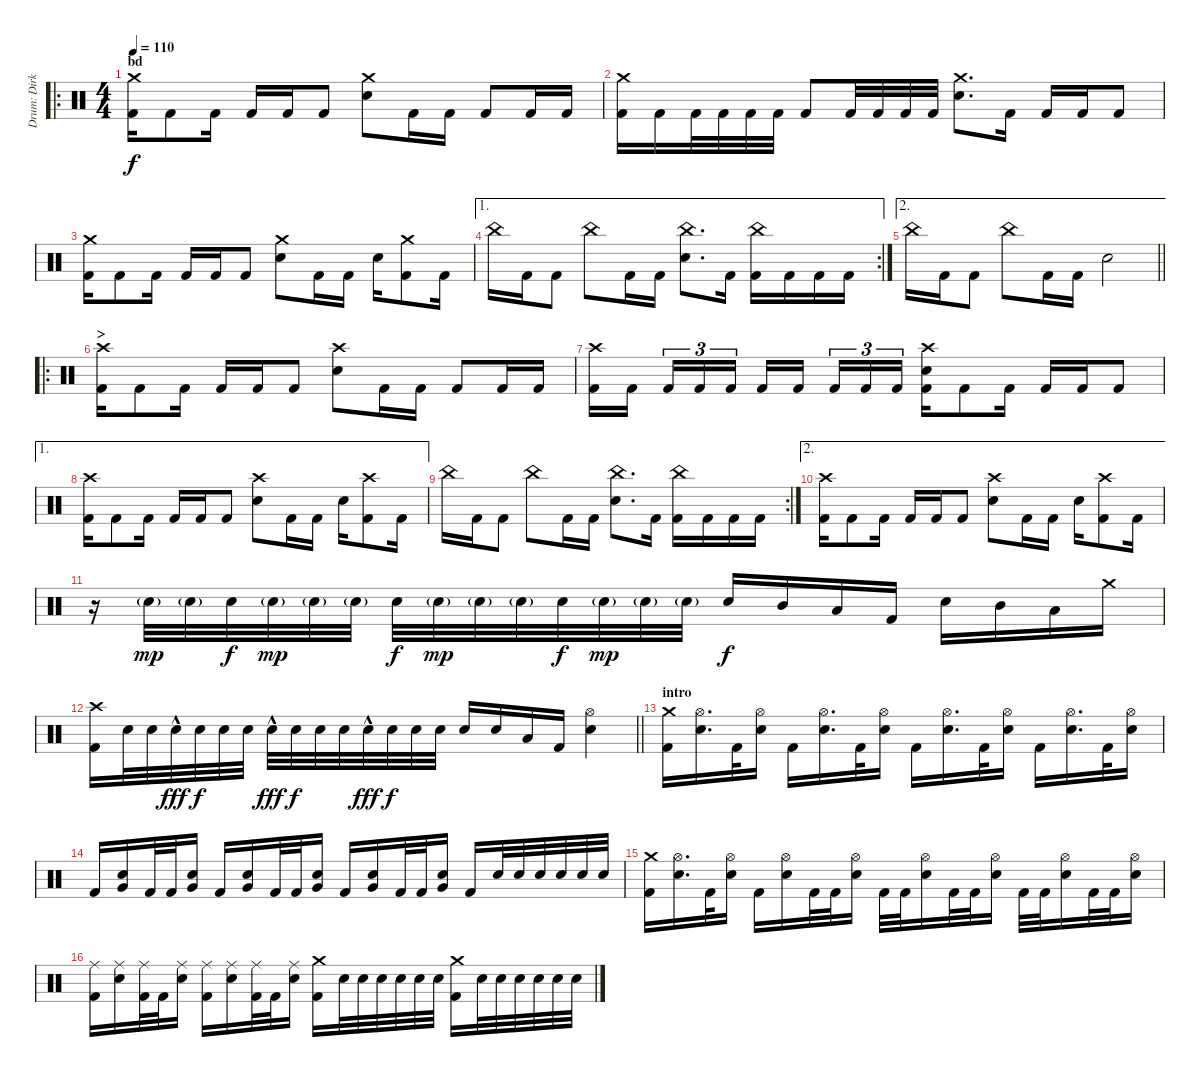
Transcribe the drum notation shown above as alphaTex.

\track ("Drum: Dirk" "Drum: Dirk") {instrument percussion}
\staff {score}
\articulation defaults
\ro
\ts (4 4)
\section ("" "bd")
\tempo 110
\clef neutral
\ks c
("Crash medium (hit)" "Kick (hit) 2").16{dy f} "Kick (hit) 2".8 "Kick (hit) 2".16 "Kick (hit) 2".16 "Kick (hit) 2".16 "Kick (hit) 2".8 ("Crash medium (hit)" "Electric Snare (hit)").8 "Kick (hit) 2".16 "Kick (hit) 2".16 "Kick (hit) 2".8 "Kick (hit) 2".16 "Kick (hit) 2".16 |
("Crash medium (hit)" "Kick (hit) 2").16 "Kick (hit) 2".16 "Kick (hit) 2".32 "Kick (hit) 2".32 "Kick (hit) 2".32 "Kick (hit) 2".32 "Kick (hit) 2".8 "Kick (hit) 2".32 "Kick (hit) 2".32 "Kick (hit) 2".32 "Kick (hit) 2".32 ("Crash medium (hit)" "Electric Snare (hit)").8{d} "Kick (hit) 2".16 "Kick (hit) 2".16 "Kick (hit) 2".16 "Kick (hit) 2".8 |
("Crash medium (hit)" "Kick (hit) 2").16 "Kick (hit) 2".8 "Kick (hit) 2".16 "Kick (hit) 2".16 "Kick (hit) 2".16 "Kick (hit) 2".8 ("Crash medium (hit)" "Electric Snare (hit)").8 "Kick (hit) 2".16 "Kick (hit) 2".16 "Electric Snare (hit)".16 ("Crash medium (hit)" "Kick (hit) 2").8 "Kick (hit) 2".16 |
\ae 1
\rc 2 "China (hit)".16 "Kick (hit) 2".16 "Kick (hit) 2".8 "China (hit)".8 "Kick (hit) 2".16 "Kick (hit) 2".16
("China (hit)" "Electric Snare (hit)").8{d} "Kick (hit) 2".16 ("China (hit)" "Kick (hit) 2").16 "Kick (hit) 2".16 "Kick (hit) 2".16 "Kick (hit) 2".16 |
\ae 2
\barLineRight lightlight "China (hit)".16 "Kick (hit) 2".16 "Kick (hit) 2".8 "China (hit)".8 "Kick (hit) 2".16 "Kick (hit) 2".16 "Electric Snare (hit)".2
|
\ro
\section ("" ">")
("Crash high (hit)" "Kick (hit) 2").16 "Kick (hit) 2".8 "Kick (hit) 2".16 "Kick (hit) 2".16 "Kick (hit) 2".16 "Kick (hit) 2".8 ("Crash high (hit)" "Electric Snare (hit)").8 "Kick (hit) 2".16 "Kick (hit) 2".16 "Kick (hit) 2".8 "Kick (hit) 2".16 "Kick (hit) 2".16 |
("Crash high (hit)" "Kick (hit) 2").16 "Kick (hit) 2".16{beam splitsecondary} "Kick (hit) 2".16{tu (3 2)} "Kick (hit) 2".16{tu (3 2)} "Kick (hit) 2".16{tu (3 2)} "Kick (hit) 2".16 "Kick (hit) 2".16{beam splitsecondary} "Kick (hit) 2".16{tu (3 2)} "Kick (hit) 2".16{tu (3 2)} "Kick (hit) 2".16{tu (3 2)} ("Crash high (hit)" "Electric Snare (hit)" "Kick (hit) 2").16 "Kick (hit) 2".8 "Kick (hit) 2".16 "Kick (hit) 2".16 "Kick (hit) 2".16 "Kick (hit) 2".8 |
\ae 1
("Crash high (hit)" "Kick (hit) 2").16 "Kick (hit) 2".8 "Kick (hit) 2".16 "Kick (hit) 2".16 "Kick (hit) 2".16 "Kick (hit) 2".8 ("Crash high (hit)" "Electric Snare (hit)").8 "Kick (hit) 2".16 "Kick (hit) 2".16 "Electric Snare (hit)".16 ("Crash high (hit)" "Kick (hit) 2").8 "Kick (hit) 2".16 |
\rc 2 "China (hit)".16 "Kick (hit) 2".16 "Kick (hit) 2".8 "China (hit)".8 "Kick (hit) 2".16 "Kick (hit) 2".16
("China (hit)" "Electric Snare (hit)").8{d} "Kick (hit) 2".16 ("China (hit)" "Kick (hit) 2").16 "Kick (hit) 2".16 "Kick (hit) 2".16 "Kick (hit) 2".16 |
\ae 2
("Crash high (hit)" "Kick (hit) 2").16 "Kick (hit) 2".8 "Kick (hit) 2".16 "Kick (hit) 2".16 "Kick (hit) 2".16 "Kick (hit) 2".8 ("Crash high (hit)" "Electric Snare (hit)").8 "Kick (hit) 2".16 "Kick (hit) 2".16 "Electric Snare (hit)".16 ("Crash high (hit)" "Kick (hit) 2").8 "Kick (hit) 2".16 |
r.16 "Electric Snare (hit)"{g}.32{dy mp} "Electric Snare (hit)"{g}.32 "Electric Snare (hit)".32{dy f} "Electric Snare (hit)"{g}.32{dy mp} "Electric Snare (hit)"{g}.32 "Electric Snare (hit)"{g}.32 "Electric Snare (hit)".32{dy f} "Electric Snare (hit)"{g}.32{dy mp} "Electric Snare (hit)"{g}.32 "Electric Snare (hit)"{g}.32 "Electric Snare (hit)".32{dy f} "Electric Snare (hit)"{g}.32{dy mp} "Electric Snare (hit)"{g}.32 "Electric Snare (hit)"{g}.32 "Electric Snare (hit)".16{dy f} "Mid Tom (hit)".16 "Low Tom (hit)".16 "Kick (hit) 2".16 "Electric Snare (hit)".16 "Mid Tom (hit)".16 "Low Tom (hit)".16 "Crash medium (hit)".16 |
\barLineRight lightlight
("Crash high (hit)" "Kick (hit) 2").16 "Electric Snare (hit)".32 "Electric Snare (hit)".32 "Electric Snare (hit)"{hac}.32{dy fff} "Electric Snare (hit)".32{dy f} "Electric Snare (hit)".32 "Electric Snare (hit)".32 "Electric Snare (hit)"{hac}.32{dy fff} "Electric Snare (hit)".32{dy f} "Electric Snare (hit)".32 "Electric Snare (hit)".32 "Electric Snare (hit)"{hac}.32{dy fff} "Electric Snare (hit)".32{dy f} "Electric Snare (hit)".32 "Electric Snare (hit)".32 "Electric Snare (hit)".16 "Electric Snare (hit)".16 "Low Tom (hit)".16 "Kick (hit) 2".16 ("Hi-Hat (open)" "Electric Snare (hit)").4 |
\section ("" "intro")
("Crash medium (hit)" "Kick (hit) 2").16 ("Hi-Hat (open)" "Electric Snare (hit)").16{d} "Kick (hit) 2".32 ("Hi-Hat (open)" "Electric Snare (hit)").16 "Kick (hit) 2".16 ("Hi-Hat (open)" "Electric Snare (hit)").16{d} "Kick (hit) 2".32 ("Hi-Hat (open)" "Electric Snare (hit)").16 "Kick (hit) 2".16 ("Hi-Hat (open)" "Electric Snare (hit)").16{d} "Kick (hit) 2".32 ("Hi-Hat (open)" "Electric Snare (hit)").16 "Kick (hit) 2".16 ("Hi-Hat (open)" "Electric Snare (hit)").16{d} "Kick (hit) 2".32 ("Hi-Hat (open)" "Electric Snare (hit)").16 |
"Kick (hit) 2".16 ("Electric Snare (hit)" "Very Low Tom (hit)").16 "Kick (hit) 2".32 "Kick (hit) 2".32 ("Electric Snare (hit)" "Very Low Tom (hit)").16 "Kick (hit) 2".16 ("Electric Snare (hit)" "Very Low Tom (hit)").16 "Kick (hit) 2".32 "Kick (hit) 2".32 ("Electric Snare (hit)" "Very Low Tom (hit)").16 "Kick (hit) 2".16 ("Electric Snare (hit)" "Very Low Tom (hit)").16 "Kick (hit) 2".32 "Kick (hit) 2".32 ("Electric Snare (hit)" "Very Low Tom (hit)").16 "Kick (hit) 2".16 "Electric Snare (hit)".32 "Electric Snare (hit)".32 "Electric Snare (hit)".32 "Electric Snare (hit)".32 "Electric Snare (hit)".32 "Electric Snare (hit)".32 |
("Crash medium (hit)" "Kick (hit) 2").16 ("Hi-Hat (open)" "Electric Snare (hit)").16{d} "Kick (hit) 2".32 ("Hi-Hat (open)" "Electric Snare (hit)").16 "Kick (hit) 2".16 ("Hi-Hat (open)" "Electric Snare (hit)").16 "Kick (hit) 2".32 "Kick (hit) 2".32 ("Hi-Hat (open)" "Electric Snare (hit)").16 "Kick (hit) 2".32 "Kick (hit) 2".32 ("Hi-Hat (open)" "Electric Snare (hit)").16 "Kick (hit) 2".32 "Kick (hit) 2".32 ("Hi-Hat (open)" "Electric Snare (hit)").16 "Kick (hit) 2".32 "Kick (hit) 2".32 ("Hi-Hat (open)" "Electric Snare (hit)").16 "Kick (hit) 2".32 "Kick (hit) 2".32 ("Hi-Hat (open)" "Electric Snare (hit)").16 |
("Ride (middle)" "Kick (hit) 2").16 ("Ride (middle)" "Electric Snare (hit)").16 ("Ride (middle)" "Kick (hit) 2").32 "Kick (hit) 2".32 ("Ride (middle)" "Electric Snare (hit)").16 ("Ride (middle)" "Kick (hit) 2").16 ("Ride (middle)" "Electric Snare (hit)").16 ("Ride (middle)" "Kick (hit) 2").32 "Kick (hit) 2".32 ("Ride (middle)" "Electric Snare (hit)").16 ("Crash medium (hit)" "Kick (hit) 2").16 "Electric Snare (hit)".32 "Electric Snare (hit)".32 "Electric Snare (hit)".32 "Electric Snare (hit)".32 "Electric Snare (hit)".32 "Electric Snare (hit)".32 ("Crash medium (hit)" "Kick (hit) 2").16 "Electric Snare (hit)".32 "Electric Snare (hit)".32 "Electric Snare (hit)".32 "Electric Snare (hit)".32 "Electric Snare (hit)".32 "Electric Snare (hit)".32
